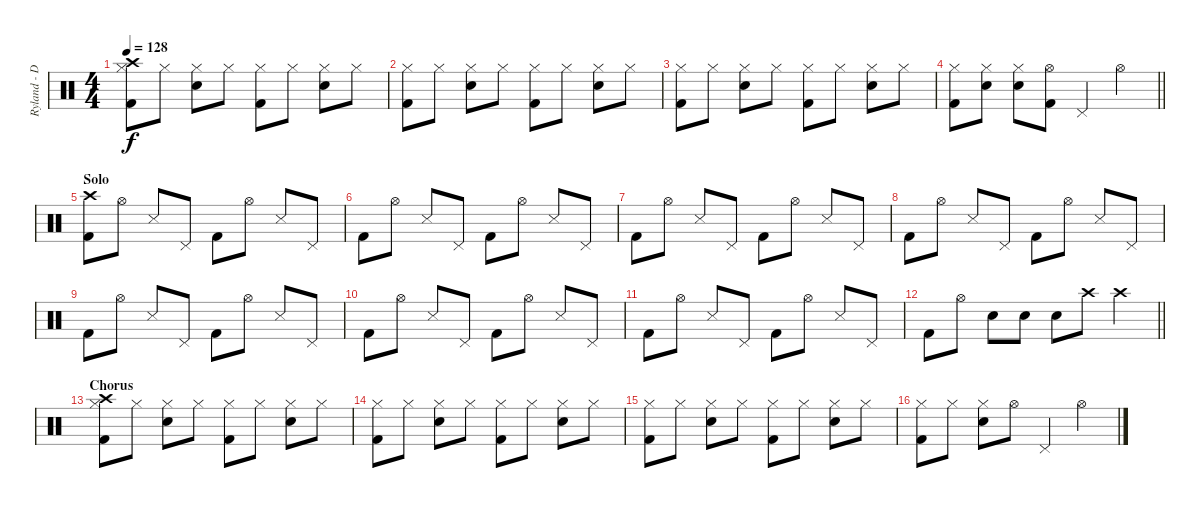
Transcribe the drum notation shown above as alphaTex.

\track ("Ryland - Drums" "Ryland - D") {instrument percussion}
\staff {score}
\articulation defaults
\ts (4 4)
\tempo 128
\clef neutral
\ks c
("Hi-Hat (closed)" "Crash high (hit)" "Kick (hit) 2").8{dy f} "Hi-Hat (closed)".8 ("Hi-Hat (closed)" "Electric Snare (hit)").8 "Hi-Hat (closed)".8 ("Hi-Hat (closed)" "Kick (hit) 2").8 "Hi-Hat (closed)".8 ("Hi-Hat (closed)" "Electric Snare (hit)").8 "Hi-Hat (closed)".8 |
("Hi-Hat (closed)" "Kick (hit) 2").8 "Hi-Hat (closed)".8 ("Hi-Hat (closed)" "Electric Snare (hit)").8 "Hi-Hat (closed)".8 ("Hi-Hat (closed)" "Kick (hit) 2").8 "Hi-Hat (closed)".8 ("Hi-Hat (closed)" "Electric Snare (hit)").8 "Hi-Hat (closed)".8 |
("Hi-Hat (closed)" "Kick (hit) 2").8 "Hi-Hat (closed)".8 ("Hi-Hat (closed)" "Electric Snare (hit)").8 "Hi-Hat (closed)".8 ("Hi-Hat (closed)" "Kick (hit) 2").8 "Hi-Hat (closed)".8 ("Hi-Hat (closed)" "Electric Snare (hit)").8 "Hi-Hat (closed)".8 |
\barLineRight lightlight
("Hi-Hat (closed)" "Kick (hit) 2").8 ("Hi-Hat (closed)" "Electric Snare (hit)").8 ("Hi-Hat (closed)" "Electric Snare (hit)").8 ("Hi-Hat (open)" "Kick (hit) 2").8 "Pedal Hi-Hat (hit)".4 "Hi-Hat (open)".4 |
\section ("" "Solo")
("Crash high (hit)" "Kick (hit) 2").8 "Hi-Hat (open)".8 "Snare (side stick) 3".8 "Pedal Hi-Hat (hit)".8 "Kick (hit) 2".8 "Hi-Hat (open)".8 "Snare (side stick) 3".8 "Pedal Hi-Hat (hit)".8 |
"Kick (hit) 2".8 "Hi-Hat (open)".8 "Snare (side stick) 3".8 "Pedal Hi-Hat (hit)".8 "Kick (hit) 2".8 "Hi-Hat (open)".8 "Snare (side stick) 3".8 "Pedal Hi-Hat (hit)".8 |
"Kick (hit) 2".8 "Hi-Hat (open)".8 "Snare (side stick) 3".8 "Pedal Hi-Hat (hit)".8 "Kick (hit) 2".8 "Hi-Hat (open)".8 "Snare (side stick) 3".8 "Pedal Hi-Hat (hit)".8 |
"Kick (hit) 2".8 "Hi-Hat (open)".8 "Snare (side stick) 3".8 "Pedal Hi-Hat (hit)".8 "Kick (hit) 2".8 "Hi-Hat (open)".8 "Snare (side stick) 3".8 "Pedal Hi-Hat (hit)".8 |
"Kick (hit) 2".8 "Hi-Hat (open)".8 "Snare (side stick) 3".8 "Pedal Hi-Hat (hit)".8 "Kick (hit) 2".8 "Hi-Hat (open)".8 "Snare (side stick) 3".8 "Pedal Hi-Hat (hit)".8 |
"Kick (hit) 2".8 "Hi-Hat (open)".8 "Snare (side stick) 3".8 "Pedal Hi-Hat (hit)".8 "Kick (hit) 2".8 "Hi-Hat (open)".8 "Snare (side stick) 3".8 "Pedal Hi-Hat (hit)".8 |
"Kick (hit) 2".8 "Hi-Hat (open)".8 "Snare (side stick) 3".8 "Pedal Hi-Hat (hit)".8 "Kick (hit) 2".8 "Hi-Hat (open)".8 "Snare (side stick) 3".8 "Pedal Hi-Hat (hit)".8 |
\barLineRight lightlight "Kick (hit) 2".8 "Hi-Hat (open)".8 "Electric Snare (hit)".8 "Electric Snare (hit)".8 "Electric Snare (hit)".8 "Crash high (hit)".8 "Crash high (hit)".4
|
\section ("" "Chorus")
("Hi-Hat (closed)" "Crash high (hit)" "Kick (hit) 2").8 "Hi-Hat (closed)".8 ("Hi-Hat (closed)" "Electric Snare (hit)").8 "Hi-Hat (closed)".8 ("Hi-Hat (closed)" "Kick (hit) 2").8 "Hi-Hat (closed)".8 ("Hi-Hat (closed)" "Electric Snare (hit)").8 "Hi-Hat (closed)".8 |
("Hi-Hat (closed)" "Kick (hit) 2").8 "Hi-Hat (closed)".8 ("Hi-Hat (closed)" "Electric Snare (hit)").8 "Hi-Hat (closed)".8 ("Hi-Hat (closed)" "Kick (hit) 2").8 "Hi-Hat (closed)".8 ("Hi-Hat (closed)" "Electric Snare (hit)").8 "Hi-Hat (closed)".8 |
("Hi-Hat (closed)" "Kick (hit) 2").8 "Hi-Hat (closed)".8 ("Hi-Hat (closed)" "Electric Snare (hit)").8 "Hi-Hat (closed)".8 ("Hi-Hat (closed)" "Kick (hit) 2").8 "Hi-Hat (closed)".8 ("Hi-Hat (closed)" "Electric Snare (hit)").8 "Hi-Hat (closed)".8 |
("Hi-Hat (closed)" "Kick (hit) 2").8 "Hi-Hat (closed)".8 ("Hi-Hat (closed)" "Electric Snare (hit)").8 "Hi-Hat (open)".8 "Pedal Hi-Hat (hit)".4 "Hi-Hat (open)".4
